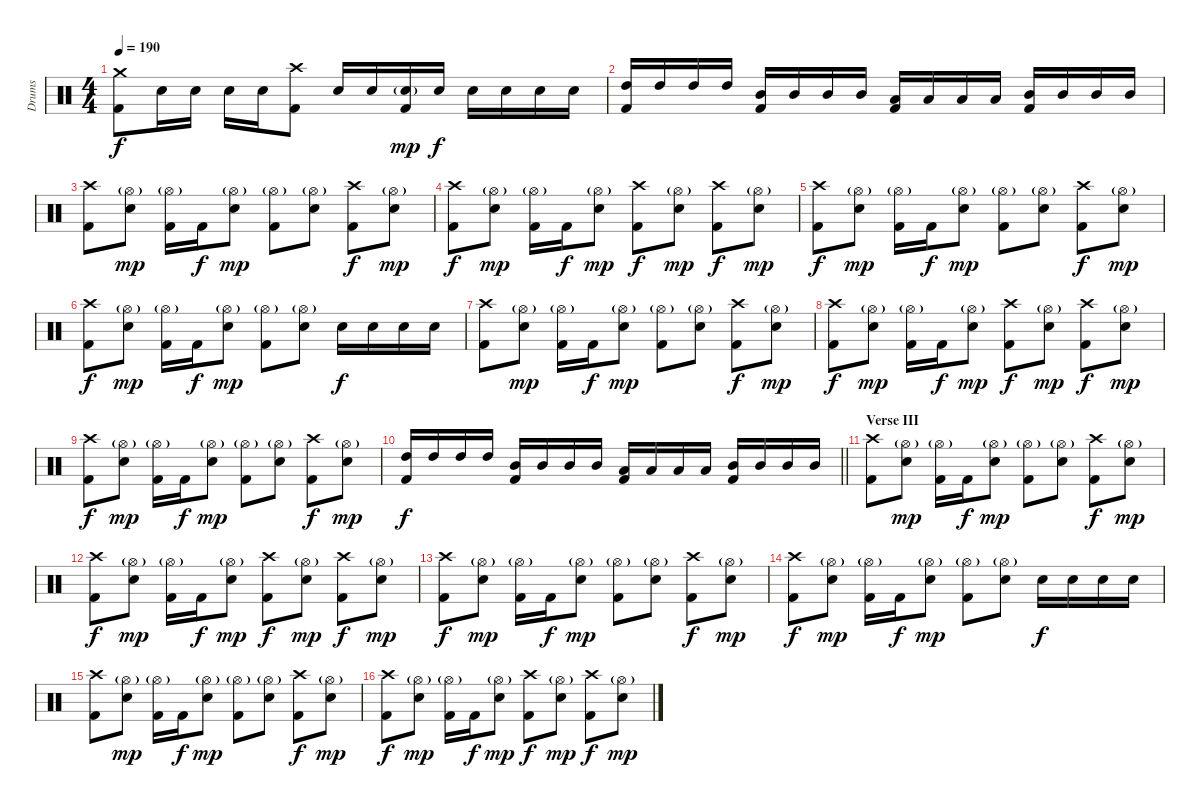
\track ("Drums" "Drums") {instrument percussion}
\staff {score}
\articulation defaults
\ts (4 4)
\tempo 190
\clef neutral
\ks c
("Crash medium (hit)" "Kick (hit) 2").8{dy f} "Electric Snare (hit)".16 "Electric Snare (hit)".16 "Electric Snare (hit)".16 "Electric Snare (hit)".16 ("Crash high (hit)" "Kick (hit) 2").8 "Electric Snare (hit)".16 "Electric Snare (hit)".16 ("Electric Snare (hit)"{g} "Kick (hit) 2").16{dy mp} "Electric Snare (hit)".16{dy f} "Electric Snare (hit)".16 "Electric Snare (hit)".16 "Electric Snare (hit)".16 "Electric Snare (hit)".16 |
("High Tom (hit)" "Kick (hit) 2").16 "High Tom (hit)".16 "High Tom (hit)".16 "High Tom (hit)".16 ("Mid Tom (hit)" "Kick (hit) 2").16 "Mid Tom (hit)".16 "Mid Tom (hit)".16 "Mid Tom (hit)".16 ("Low Tom (hit)" "Kick (hit) 2").16 "Low Tom (hit)".16 "Low Tom (hit)".16 "Low Tom (hit)".16 ("Mid Tom (hit)" "Kick (hit) 2").16 "Mid Tom (hit)".16 "Mid Tom (hit)".16 "Mid Tom (hit)".16 |
("Crash high (hit)" "Kick (hit) 2").8 ("Hi-Hat (open)"{g} "Electric Snare (hit)").8{dy mp} ("Hi-Hat (open)"{g} "Kick (hit) 2").16 "Kick (hit) 2".16{dy f} ("Hi-Hat (open)"{g} "Electric Snare (hit)").8{dy mp} ("Hi-Hat (open)"{g} "Kick (hit) 2").8 ("Hi-Hat (open)"{g} "Electric Snare (hit)").8 ("Crash high (hit)" "Kick (hit) 2").8{dy f} ("Hi-Hat (open)"{g} "Electric Snare (hit)").8{dy mp} |
("Crash high (hit)" "Kick (hit) 2").8{dy f} ("Hi-Hat (open)"{g} "Electric Snare (hit)").8{dy mp} ("Hi-Hat (open)"{g} "Kick (hit) 2").16 "Kick (hit) 2".16{dy f} ("Hi-Hat (open)"{g} "Electric Snare (hit)").8{dy mp} ("Crash high (hit)" "Kick (hit) 2").8{dy f} ("Hi-Hat (open)"{g} "Electric Snare (hit)").8{dy mp} ("Crash high (hit)" "Kick (hit) 2").8{dy f} ("Hi-Hat (open)"{g} "Electric Snare (hit)").8{dy mp} |
("Crash high (hit)" "Kick (hit) 2").8{dy f} ("Hi-Hat (open)"{g} "Electric Snare (hit)").8{dy mp} ("Hi-Hat (open)"{g} "Kick (hit) 2").16 "Kick (hit) 2".16{dy f} ("Hi-Hat (open)"{g} "Electric Snare (hit)").8{dy mp} ("Hi-Hat (open)"{g} "Kick (hit) 2").8 ("Hi-Hat (open)"{g} "Electric Snare (hit)").8 ("Crash high (hit)" "Kick (hit) 2").8{dy f} ("Hi-Hat (open)"{g} "Electric Snare (hit)").8{dy mp} |
("Crash high (hit)" "Kick (hit) 2").8{dy f} ("Hi-Hat (open)"{g} "Electric Snare (hit)").8{dy mp} ("Hi-Hat (open)"{g} "Kick (hit) 2").16 "Kick (hit) 2".16{dy f} ("Hi-Hat (open)"{g} "Electric Snare (hit)").8{dy mp} ("Hi-Hat (open)"{g} "Kick (hit) 2").8 ("Hi-Hat (open)"{g} "Electric Snare (hit)").8 "Electric Snare (hit)".16{dy f} "Electric Snare (hit)".16 "Electric Snare (hit)".16 "Electric Snare (hit)".16 |
("Crash high (hit)" "Kick (hit) 2").8 ("Hi-Hat (open)"{g} "Electric Snare (hit)").8{dy mp} ("Hi-Hat (open)"{g} "Kick (hit) 2").16 "Kick (hit) 2".16{dy f} ("Hi-Hat (open)"{g} "Electric Snare (hit)").8{dy mp} ("Hi-Hat (open)"{g} "Kick (hit) 2").8 ("Hi-Hat (open)"{g} "Electric Snare (hit)").8 ("Crash high (hit)" "Kick (hit) 2").8{dy f} ("Hi-Hat (open)"{g} "Electric Snare (hit)").8{dy mp} |
("Crash high (hit)" "Kick (hit) 2").8{dy f} ("Hi-Hat (open)"{g} "Electric Snare (hit)").8{dy mp} ("Hi-Hat (open)"{g} "Kick (hit) 2").16 "Kick (hit) 2".16{dy f} ("Hi-Hat (open)"{g} "Electric Snare (hit)").8{dy mp} ("Crash high (hit)" "Kick (hit) 2").8{dy f} ("Hi-Hat (open)"{g} "Electric Snare (hit)").8{dy mp} ("Crash high (hit)" "Kick (hit) 2").8{dy f} ("Hi-Hat (open)"{g} "Electric Snare (hit)").8{dy mp} |
("Crash high (hit)" "Kick (hit) 2").8{dy f} ("Hi-Hat (open)"{g} "Electric Snare (hit)").8{dy mp} ("Hi-Hat (open)"{g} "Kick (hit) 2").16 "Kick (hit) 2".16{dy f} ("Hi-Hat (open)"{g} "Electric Snare (hit)").8{dy mp} ("Hi-Hat (open)"{g} "Kick (hit) 2").8 ("Hi-Hat (open)"{g} "Electric Snare (hit)").8 ("Crash high (hit)" "Kick (hit) 2").8{dy f} ("Hi-Hat (open)"{g} "Electric Snare (hit)").8{dy mp} |
\barLineRight lightlight
("High Tom (hit)" "Kick (hit) 2").16{dy f} "High Tom (hit)".16 "High Tom (hit)".16 "High Tom (hit)".16 ("Mid Tom (hit)" "Kick (hit) 2").16 "Mid Tom (hit)".16 "Mid Tom (hit)".16 "Mid Tom (hit)".16 ("Low Tom (hit)" "Kick (hit) 2").16 "Low Tom (hit)".16 "Low Tom (hit)".16 "Low Tom (hit)".16 ("Mid Tom (hit)" "Kick (hit) 2").16 "Mid Tom (hit)".16 "Mid Tom (hit)".16 "Mid Tom (hit)".16 |
\section ("" "Verse III")
("Crash high (hit)" "Kick (hit) 2").8 ("Hi-Hat (open)"{g} "Electric Snare (hit)").8{dy mp} ("Hi-Hat (open)"{g} "Kick (hit) 2").16 "Kick (hit) 2".16{dy f} ("Hi-Hat (open)"{g} "Electric Snare (hit)").8{dy mp} ("Hi-Hat (open)"{g} "Kick (hit) 2").8 ("Hi-Hat (open)"{g} "Electric Snare (hit)").8 ("Crash high (hit)" "Kick (hit) 2").8{dy f} ("Hi-Hat (open)"{g} "Electric Snare (hit)").8{dy mp} |
("Crash high (hit)" "Kick (hit) 2").8{dy f} ("Hi-Hat (open)"{g} "Electric Snare (hit)").8{dy mp} ("Hi-Hat (open)"{g} "Kick (hit) 2").16 "Kick (hit) 2".16{dy f} ("Hi-Hat (open)"{g} "Electric Snare (hit)").8{dy mp} ("Crash high (hit)" "Kick (hit) 2").8{dy f} ("Hi-Hat (open)"{g} "Electric Snare (hit)").8{dy mp} ("Crash high (hit)" "Kick (hit) 2").8{dy f} ("Hi-Hat (open)"{g} "Electric Snare (hit)").8{dy mp} |
("Crash high (hit)" "Kick (hit) 2").8{dy f} ("Hi-Hat (open)"{g} "Electric Snare (hit)").8{dy mp} ("Hi-Hat (open)"{g} "Kick (hit) 2").16 "Kick (hit) 2".16{dy f} ("Hi-Hat (open)"{g} "Electric Snare (hit)").8{dy mp} ("Hi-Hat (open)"{g} "Kick (hit) 2").8 ("Hi-Hat (open)"{g} "Electric Snare (hit)").8 ("Crash high (hit)" "Kick (hit) 2").8{dy f} ("Hi-Hat (open)"{g} "Electric Snare (hit)").8{dy mp} |
("Crash high (hit)" "Kick (hit) 2").8{dy f} ("Hi-Hat (open)"{g} "Electric Snare (hit)").8{dy mp} ("Hi-Hat (open)"{g} "Kick (hit) 2").16 "Kick (hit) 2".16{dy f} ("Hi-Hat (open)"{g} "Electric Snare (hit)").8{dy mp} ("Hi-Hat (open)"{g} "Kick (hit) 2").8 ("Hi-Hat (open)"{g} "Electric Snare (hit)").8 "Electric Snare (hit)".16{dy f} "Electric Snare (hit)".16 "Electric Snare (hit)".16 "Electric Snare (hit)".16 |
("Crash high (hit)" "Kick (hit) 2").8 ("Hi-Hat (open)"{g} "Electric Snare (hit)").8{dy mp} ("Hi-Hat (open)"{g} "Kick (hit) 2").16 "Kick (hit) 2".16{dy f} ("Hi-Hat (open)"{g} "Electric Snare (hit)").8{dy mp} ("Hi-Hat (open)"{g} "Kick (hit) 2").8 ("Hi-Hat (open)"{g} "Electric Snare (hit)").8 ("Crash high (hit)" "Kick (hit) 2").8{dy f} ("Hi-Hat (open)"{g} "Electric Snare (hit)").8{dy mp} |
("Crash high (hit)" "Kick (hit) 2").8{dy f} ("Hi-Hat (open)"{g} "Electric Snare (hit)").8{dy mp} ("Hi-Hat (open)"{g} "Kick (hit) 2").16 "Kick (hit) 2".16{dy f} ("Hi-Hat (open)"{g} "Electric Snare (hit)").8{dy mp} ("Crash high (hit)" "Kick (hit) 2").8{dy f} ("Hi-Hat (open)"{g} "Electric Snare (hit)").8{dy mp} ("Crash high (hit)" "Kick (hit) 2").8{dy f} ("Hi-Hat (open)"{g} "Electric Snare (hit)").8{dy mp}
